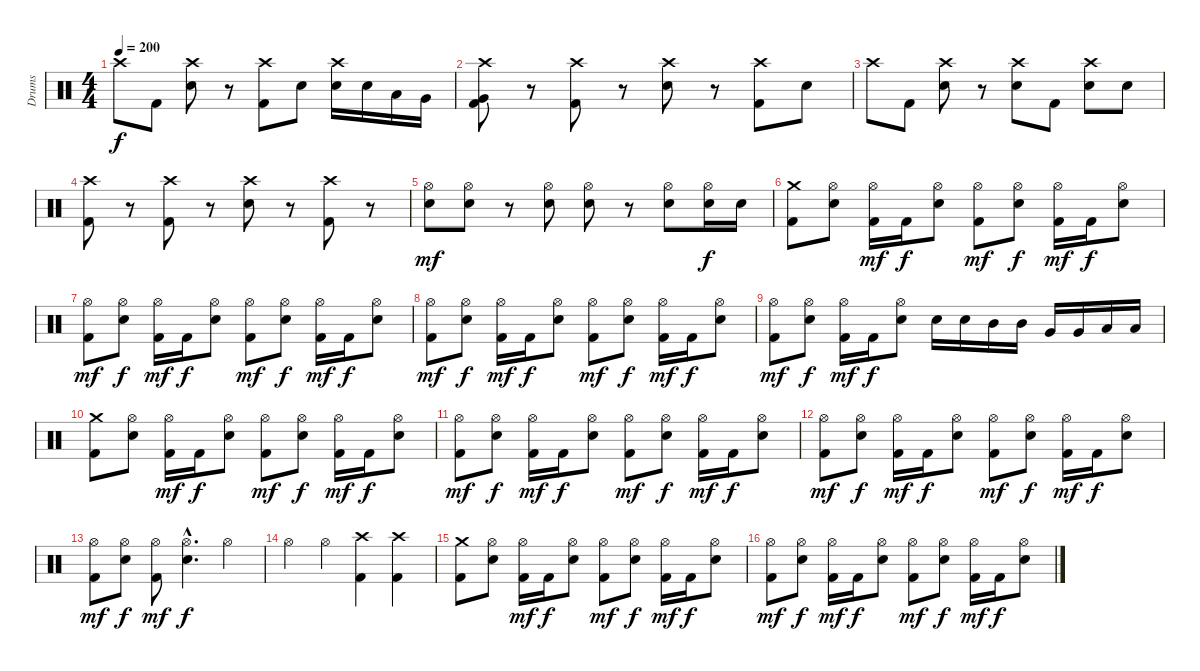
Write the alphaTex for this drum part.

\track ("Drums" "Drums") {instrument percussion}
\staff {score}
\articulation defaults
\ts (4 4)
\tempo 200
\clef neutral
\ks c "Crash high (hit)".8{dy f} "Kick (hit) 2".8
("Crash high (hit)" "Electric Snare (hit)").8 r.8 ("Crash high (hit)" "Kick (hit) 2").8 "Electric Snare (hit)".8 ("Crash high (hit)" "Electric Snare (hit)").16 "Electric Snare (hit)".16 "Low Tom (hit)".16 "Very Low Tom (hit)".16 |
("Crash high (hit)" "Very Low Tom (hit)" "Kick (hit) 2").8 r.8 ("Crash high (hit)" "Kick (hit) 2").8 r.8 ("Crash high (hit)" "Electric Snare (hit)").8 r.8 ("Crash high (hit)" "Kick (hit) 2").8 "Electric Snare (hit)".8 |
"Crash high (hit)".8 "Kick (hit) 2".8 ("Crash high (hit)" "Electric Snare (hit)").8 r.8 ("Crash high (hit)" "Electric Snare (hit)").8 "Kick (hit) 2".8 ("Crash high (hit)" "Electric Snare (hit)").8 "Electric Snare (hit)".8 |
("Crash high (hit)" "Kick (hit) 2").8 r.8 ("Crash high (hit)" "Kick (hit) 2").8 r.8 ("Crash high (hit)" "Electric Snare (hit)").8 r.8 ("Crash high (hit)" "Kick (hit) 2").8 r.8 |
("Hi-Hat (open)" "Electric Snare (hit)").8{dy mf} ("Hi-Hat (open)" "Electric Snare (hit)").8 r.8 ("Hi-Hat (open)" "Electric Snare (hit)").8 ("Hi-Hat (open)" "Electric Snare (hit)").8 r.8 ("Hi-Hat (open)" "Electric Snare (hit)").8 ("Hi-Hat (open)" "Electric Snare (hit)").16{dy f} "Electric Snare (hit)".16 |
("Crash medium (hit)" "Kick (hit) 2").8 ("Hi-Hat (open)" "Electric Snare (hit)").8 ("Hi-Hat (open)" "Kick (hit) 2").16{dy mf} "Kick (hit) 2".16{dy f} ("Hi-Hat (open)" "Electric Snare (hit)").8 ("Hi-Hat (open)" "Kick (hit) 2").8{dy mf} ("Hi-Hat (open)" "Electric Snare (hit)").8{dy f} ("Hi-Hat (open)" "Kick (hit) 2").16{dy mf} "Kick (hit) 2".16{dy f} ("Hi-Hat (open)" "Electric Snare (hit)").8 |
("Hi-Hat (open)" "Kick (hit) 2").8{dy mf} ("Hi-Hat (open)" "Electric Snare (hit)").8{dy f} ("Hi-Hat (open)" "Kick (hit) 2").16{dy mf} "Kick (hit) 2".16{dy f} ("Hi-Hat (open)" "Electric Snare (hit)").8 ("Hi-Hat (open)" "Kick (hit) 2").8{dy mf} ("Hi-Hat (open)" "Electric Snare (hit)").8{dy f} ("Hi-Hat (open)" "Kick (hit) 2").16{dy mf} "Kick (hit) 2".16{dy f} ("Hi-Hat (open)" "Electric Snare (hit)").8 |
("Hi-Hat (open)" "Kick (hit) 2").8{dy mf} ("Hi-Hat (open)" "Electric Snare (hit)").8{dy f} ("Hi-Hat (open)" "Kick (hit) 2").16{dy mf} "Kick (hit) 2".16{dy f} ("Hi-Hat (open)" "Electric Snare (hit)").8 ("Hi-Hat (open)" "Kick (hit) 2").8{dy mf} ("Hi-Hat (open)" "Electric Snare (hit)").8{dy f} ("Hi-Hat (open)" "Kick (hit) 2").16{dy mf} "Kick (hit) 2".16{dy f} ("Hi-Hat (open)" "Electric Snare (hit)").8 |
("Hi-Hat (open)" "Kick (hit) 2").8{dy mf} ("Hi-Hat (open)" "Electric Snare (hit)").8{dy f} ("Hi-Hat (open)" "Kick (hit) 2").16{dy mf} "Kick (hit) 2".16{dy f} ("Hi-Hat (open)" "Electric Snare (hit)").8 "Electric Snare (hit)".16 "Electric Snare (hit)".16 "Mid Tom (hit)".16 "Mid Tom (hit)".16 "Very Low Tom (hit)".16 "Very Low Tom (hit)".16 "Low Floor Tom (hit)".16 "Low Floor Tom (hit)".16 |
("Crash medium (hit)" "Kick (hit) 2").8 ("Hi-Hat (open)" "Electric Snare (hit)").8 ("Hi-Hat (open)" "Kick (hit) 2").16{dy mf} "Kick (hit) 2".16{dy f} ("Hi-Hat (open)" "Electric Snare (hit)").8 ("Hi-Hat (open)" "Kick (hit) 2").8{dy mf} ("Hi-Hat (open)" "Electric Snare (hit)").8{dy f} ("Hi-Hat (open)" "Kick (hit) 2").16{dy mf} "Kick (hit) 2".16{dy f} ("Hi-Hat (open)" "Electric Snare (hit)").8 |
("Hi-Hat (open)" "Kick (hit) 2").8{dy mf} ("Hi-Hat (open)" "Electric Snare (hit)").8{dy f} ("Hi-Hat (open)" "Kick (hit) 2").16{dy mf} "Kick (hit) 2".16{dy f} ("Hi-Hat (open)" "Electric Snare (hit)").8 ("Hi-Hat (open)" "Kick (hit) 2").8{dy mf} ("Hi-Hat (open)" "Electric Snare (hit)").8{dy f} ("Hi-Hat (open)" "Kick (hit) 2").16{dy mf} "Kick (hit) 2".16{dy f} ("Hi-Hat (open)" "Electric Snare (hit)").8 |
("Hi-Hat (open)" "Kick (hit) 2").8{dy mf} ("Hi-Hat (open)" "Electric Snare (hit)").8{dy f} ("Hi-Hat (open)" "Kick (hit) 2").16{dy mf} "Kick (hit) 2".16{dy f} ("Hi-Hat (open)" "Electric Snare (hit)").8 ("Hi-Hat (open)" "Kick (hit) 2").8{dy mf} ("Hi-Hat (open)" "Electric Snare (hit)").8{dy f} ("Hi-Hat (open)" "Kick (hit) 2").16{dy mf} "Kick (hit) 2".16{dy f} ("Hi-Hat (open)" "Electric Snare (hit)").8 |
("Hi-Hat (open)" "Kick (hit) 2").8{dy mf} ("Hi-Hat (open)" "Electric Snare (hit)").8{dy f} ("Hi-Hat (open)" "Kick (hit) 2").8{dy mf} ("Hi-Hat (open)"{hac} "Electric Snare (hit)"{hac}).4{d dy f} "Hi-Hat (open)".4 |
"Hi-Hat (open)".4 "Hi-Hat (open)".4 ("Crash high (hit)" "Kick (hit) 2").4 ("Crash high (hit)" "Kick (hit) 2").4 |
("Crash medium (hit)" "Kick (hit) 2").8 ("Hi-Hat (open)" "Electric Snare (hit)").8 ("Hi-Hat (open)" "Kick (hit) 2").16{dy mf} "Kick (hit) 2".16{dy f} ("Hi-Hat (open)" "Electric Snare (hit)").8 ("Hi-Hat (open)" "Kick (hit) 2").8{dy mf} ("Hi-Hat (open)" "Electric Snare (hit)").8{dy f} ("Hi-Hat (open)" "Kick (hit) 2").16{dy mf} "Kick (hit) 2".16{dy f} ("Hi-Hat (open)" "Electric Snare (hit)").8 |
("Hi-Hat (open)" "Kick (hit) 2").8{dy mf} ("Hi-Hat (open)" "Electric Snare (hit)").8{dy f} ("Hi-Hat (open)" "Kick (hit) 2").16{dy mf} "Kick (hit) 2".16{dy f} ("Hi-Hat (open)" "Electric Snare (hit)").8 ("Hi-Hat (open)" "Kick (hit) 2").8{dy mf} ("Hi-Hat (open)" "Electric Snare (hit)").8{dy f} ("Hi-Hat (open)" "Kick (hit) 2").16{dy mf} "Kick (hit) 2".16{dy f} ("Hi-Hat (open)" "Electric Snare (hit)").8
